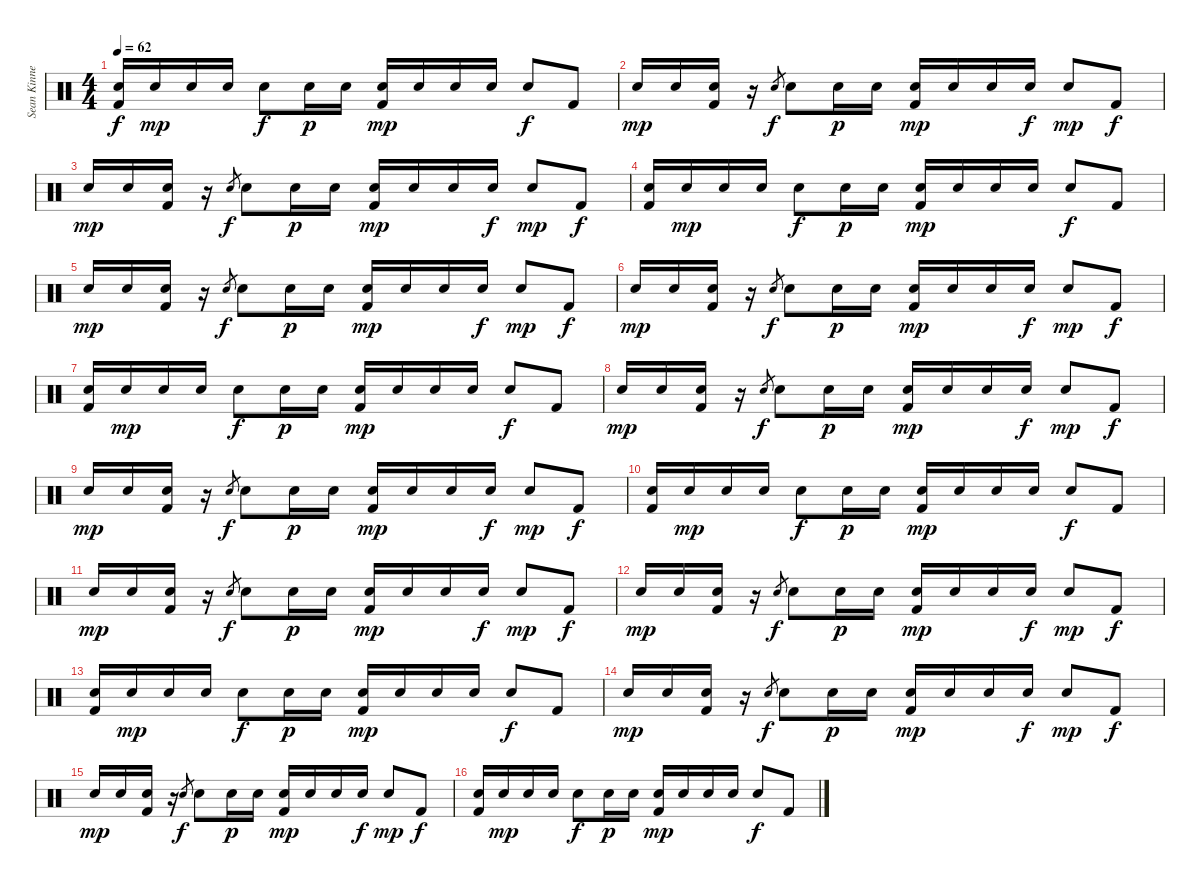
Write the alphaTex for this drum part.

\track ("Sean Kinney - Drums" "Sean Kinne") {instrument percussion}
\staff {score}
\articulation defaults
\ts (4 4)
\tempo 62
\clef neutral
\ks c
("Electric Snare (hit)" "Kick (hit) 2").16{dy f} "Electric Snare (hit)".16{dy mp} "Electric Snare (hit)".16 "Electric Snare (hit)".16 "Electric Snare (hit)".8{dy f} "Electric Snare (hit)".16{dy p} "Electric Snare (hit)".16 ("Electric Snare (hit)" "Kick (hit) 2").16{dy mp} "Electric Snare (hit)".16 "Electric Snare (hit)".16 "Electric Snare (hit)".16 "Electric Snare (hit)".8{dy f} "Kick (hit) 2".8 |
"Electric Snare (hit)".16{dy mp} "Electric Snare (hit)".16 ("Electric Snare (hit)" "Kick (hit) 2").16 r.16 "Electric Snare (hit)".8{gr dy f} "Electric Snare (hit)".8 "Electric Snare (hit)".16{dy p} "Electric Snare (hit)".16 ("Electric Snare (hit)" "Kick (hit) 2").16{dy mp} "Electric Snare (hit)".16 "Electric Snare (hit)".16 "Electric Snare (hit)".16{dy f} "Electric Snare (hit)".8{dy mp} "Kick (hit) 2".8{dy f} |
"Electric Snare (hit)".16{dy mp} "Electric Snare (hit)".16 ("Electric Snare (hit)" "Kick (hit) 2").16 r.16 "Electric Snare (hit)".8{gr dy f} "Electric Snare (hit)".8 "Electric Snare (hit)".16{dy p} "Electric Snare (hit)".16 ("Electric Snare (hit)" "Kick (hit) 2").16{dy mp} "Electric Snare (hit)".16 "Electric Snare (hit)".16 "Electric Snare (hit)".16{dy f} "Electric Snare (hit)".8{dy mp} "Kick (hit) 2".8{dy f} |
("Electric Snare (hit)" "Kick (hit) 2").16 "Electric Snare (hit)".16{dy mp} "Electric Snare (hit)".16 "Electric Snare (hit)".16 "Electric Snare (hit)".8{dy f} "Electric Snare (hit)".16{dy p} "Electric Snare (hit)".16 ("Electric Snare (hit)" "Kick (hit) 2").16{dy mp} "Electric Snare (hit)".16 "Electric Snare (hit)".16 "Electric Snare (hit)".16 "Electric Snare (hit)".8{dy f} "Kick (hit) 2".8 |
"Electric Snare (hit)".16{dy mp} "Electric Snare (hit)".16 ("Electric Snare (hit)" "Kick (hit) 2").16 r.16 "Electric Snare (hit)".8{gr dy f} "Electric Snare (hit)".8 "Electric Snare (hit)".16{dy p} "Electric Snare (hit)".16 ("Electric Snare (hit)" "Kick (hit) 2").16{dy mp} "Electric Snare (hit)".16 "Electric Snare (hit)".16 "Electric Snare (hit)".16{dy f} "Electric Snare (hit)".8{dy mp} "Kick (hit) 2".8{dy f} |
"Electric Snare (hit)".16{dy mp} "Electric Snare (hit)".16 ("Electric Snare (hit)" "Kick (hit) 2").16 r.16 "Electric Snare (hit)".8{gr dy f} "Electric Snare (hit)".8 "Electric Snare (hit)".16{dy p} "Electric Snare (hit)".16 ("Electric Snare (hit)" "Kick (hit) 2").16{dy mp} "Electric Snare (hit)".16 "Electric Snare (hit)".16 "Electric Snare (hit)".16{dy f} "Electric Snare (hit)".8{dy mp} "Kick (hit) 2".8{dy f} |
("Electric Snare (hit)" "Kick (hit) 2").16 "Electric Snare (hit)".16{dy mp} "Electric Snare (hit)".16 "Electric Snare (hit)".16 "Electric Snare (hit)".8{dy f} "Electric Snare (hit)".16{dy p} "Electric Snare (hit)".16 ("Electric Snare (hit)" "Kick (hit) 2").16{dy mp} "Electric Snare (hit)".16 "Electric Snare (hit)".16 "Electric Snare (hit)".16 "Electric Snare (hit)".8{dy f} "Kick (hit) 2".8 |
"Electric Snare (hit)".16{dy mp} "Electric Snare (hit)".16 ("Electric Snare (hit)" "Kick (hit) 2").16 r.16 "Electric Snare (hit)".8{gr dy f} "Electric Snare (hit)".8 "Electric Snare (hit)".16{dy p} "Electric Snare (hit)".16 ("Electric Snare (hit)" "Kick (hit) 2").16{dy mp} "Electric Snare (hit)".16 "Electric Snare (hit)".16 "Electric Snare (hit)".16{dy f} "Electric Snare (hit)".8{dy mp} "Kick (hit) 2".8{dy f} |
"Electric Snare (hit)".16{dy mp} "Electric Snare (hit)".16 ("Electric Snare (hit)" "Kick (hit) 2").16 r.16 "Electric Snare (hit)".8{gr dy f} "Electric Snare (hit)".8 "Electric Snare (hit)".16{dy p} "Electric Snare (hit)".16 ("Electric Snare (hit)" "Kick (hit) 2").16{dy mp} "Electric Snare (hit)".16 "Electric Snare (hit)".16 "Electric Snare (hit)".16{dy f} "Electric Snare (hit)".8{dy mp} "Kick (hit) 2".8{dy f} |
("Electric Snare (hit)" "Kick (hit) 2").16 "Electric Snare (hit)".16{dy mp} "Electric Snare (hit)".16 "Electric Snare (hit)".16 "Electric Snare (hit)".8{dy f} "Electric Snare (hit)".16{dy p} "Electric Snare (hit)".16 ("Electric Snare (hit)" "Kick (hit) 2").16{dy mp} "Electric Snare (hit)".16 "Electric Snare (hit)".16 "Electric Snare (hit)".16 "Electric Snare (hit)".8{dy f} "Kick (hit) 2".8 |
"Electric Snare (hit)".16{dy mp} "Electric Snare (hit)".16 ("Electric Snare (hit)" "Kick (hit) 2").16 r.16 "Electric Snare (hit)".8{gr dy f} "Electric Snare (hit)".8 "Electric Snare (hit)".16{dy p} "Electric Snare (hit)".16 ("Electric Snare (hit)" "Kick (hit) 2").16{dy mp} "Electric Snare (hit)".16 "Electric Snare (hit)".16 "Electric Snare (hit)".16{dy f} "Electric Snare (hit)".8{dy mp} "Kick (hit) 2".8{dy f} |
"Electric Snare (hit)".16{dy mp} "Electric Snare (hit)".16 ("Electric Snare (hit)" "Kick (hit) 2").16 r.16 "Electric Snare (hit)".8{gr dy f} "Electric Snare (hit)".8 "Electric Snare (hit)".16{dy p} "Electric Snare (hit)".16 ("Electric Snare (hit)" "Kick (hit) 2").16{dy mp} "Electric Snare (hit)".16 "Electric Snare (hit)".16 "Electric Snare (hit)".16{dy f} "Electric Snare (hit)".8{dy mp} "Kick (hit) 2".8{dy f} |
("Electric Snare (hit)" "Kick (hit) 2").16 "Electric Snare (hit)".16{dy mp} "Electric Snare (hit)".16 "Electric Snare (hit)".16 "Electric Snare (hit)".8{dy f} "Electric Snare (hit)".16{dy p} "Electric Snare (hit)".16 ("Electric Snare (hit)" "Kick (hit) 2").16{dy mp} "Electric Snare (hit)".16 "Electric Snare (hit)".16 "Electric Snare (hit)".16 "Electric Snare (hit)".8{dy f} "Kick (hit) 2".8 |
"Electric Snare (hit)".16{dy mp} "Electric Snare (hit)".16 ("Electric Snare (hit)" "Kick (hit) 2").16 r.16 "Electric Snare (hit)".8{gr dy f} "Electric Snare (hit)".8 "Electric Snare (hit)".16{dy p} "Electric Snare (hit)".16 ("Electric Snare (hit)" "Kick (hit) 2").16{dy mp} "Electric Snare (hit)".16 "Electric Snare (hit)".16 "Electric Snare (hit)".16{dy f} "Electric Snare (hit)".8{dy mp} "Kick (hit) 2".8{dy f} |
"Electric Snare (hit)".16{dy mp} "Electric Snare (hit)".16 ("Electric Snare (hit)" "Kick (hit) 2").16 r.16 "Electric Snare (hit)".8{gr dy f} "Electric Snare (hit)".8 "Electric Snare (hit)".16{dy p} "Electric Snare (hit)".16 ("Electric Snare (hit)" "Kick (hit) 2").16{dy mp} "Electric Snare (hit)".16 "Electric Snare (hit)".16 "Electric Snare (hit)".16{dy f} "Electric Snare (hit)".8{dy mp} "Kick (hit) 2".8{dy f} |
("Electric Snare (hit)" "Kick (hit) 2").16 "Electric Snare (hit)".16{dy mp} "Electric Snare (hit)".16 "Electric Snare (hit)".16 "Electric Snare (hit)".8{dy f} "Electric Snare (hit)".16{dy p} "Electric Snare (hit)".16 ("Electric Snare (hit)" "Kick (hit) 2").16{dy mp} "Electric Snare (hit)".16 "Electric Snare (hit)".16 "Electric Snare (hit)".16 "Electric Snare (hit)".8{dy f} "Kick (hit) 2".8
